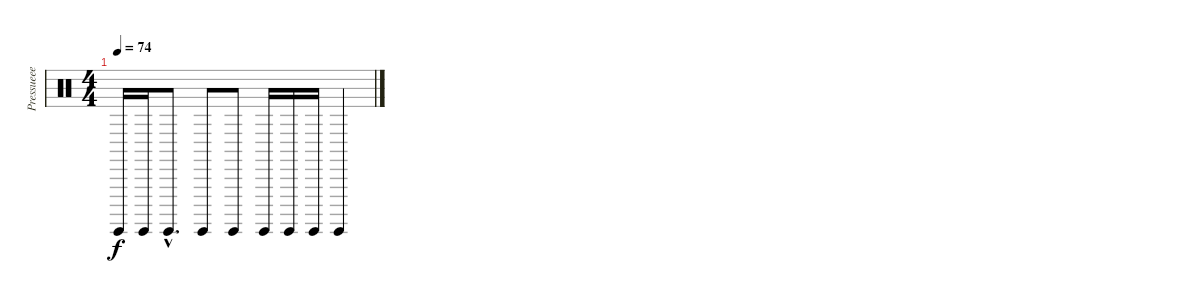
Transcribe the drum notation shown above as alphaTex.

\track ("Pressueee " "Pressueee ") {instrument percussion}
\staff {score}
\articulation defaults
\ts (4 4)
\tempo 74
\clef neutral
\ks c "Surdo (hit)".16{dy f} "Surdo (hit)".16 "Surdo (hit)"{hac}.8{d} "Surdo (hit)".8 "Surdo (hit)".8 "Surdo (hit)".16 "Surdo (hit)".16 "Surdo (hit)".16 "Surdo (hit)".4
